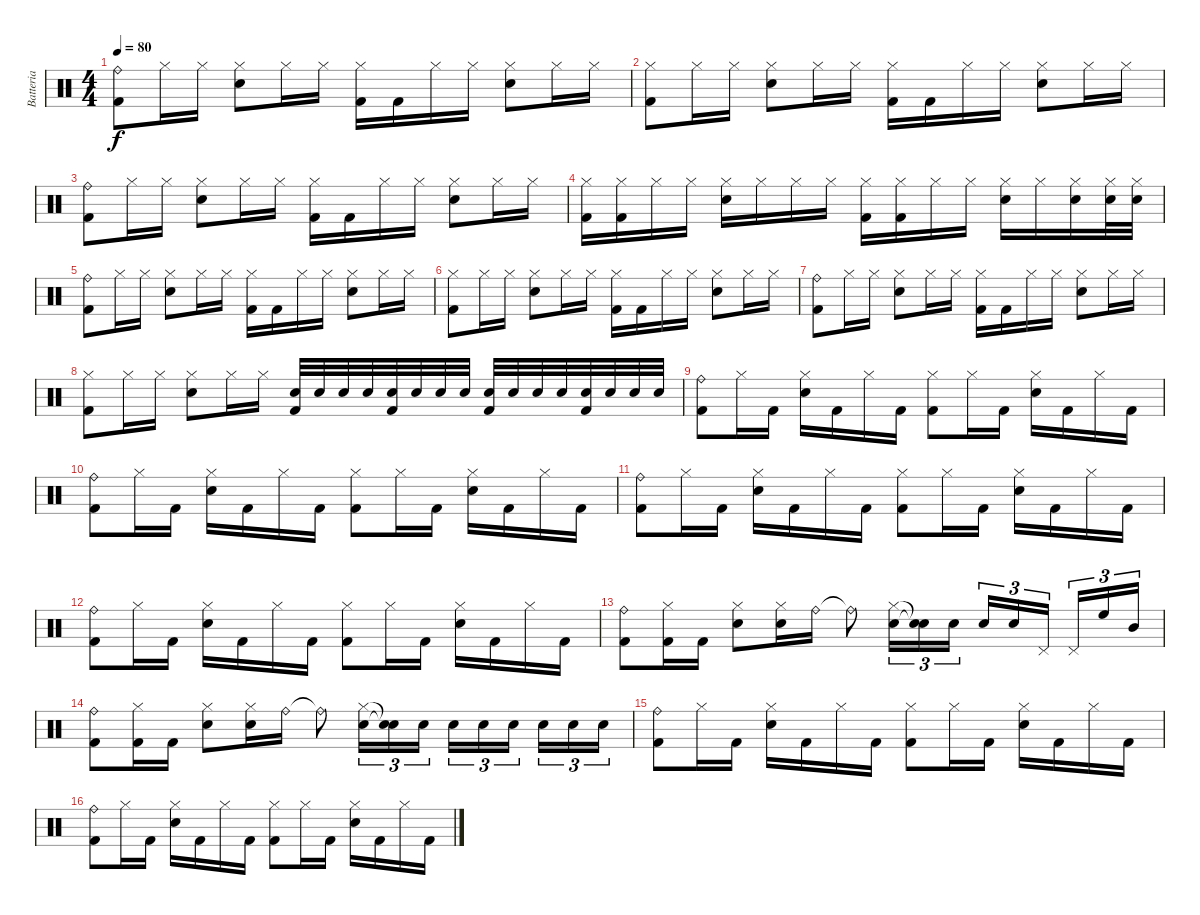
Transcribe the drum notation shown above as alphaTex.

\track ("Batteria" "Batteria") {instrument percussion}
\staff {score}
\articulation defaults
\ts (4 4)
\tempo 80
\clef neutral
\ks c
("Ride (bell)" "Kick (hit) 2").8{dy f} "Hi-Hat (closed)".16 "Hi-Hat (closed)".16 ("Hi-Hat (closed)" "Snare (hit) 2").8 "Hi-Hat (closed)".16 "Hi-Hat (closed)".16 ("Hi-Hat (closed)" "Kick (hit) 2").16 "Kick (hit) 2".16 "Hi-Hat (closed)".16 "Hi-Hat (closed)".16 ("Hi-Hat (closed)" "Snare (hit) 2").8 "Hi-Hat (closed)".16 "Hi-Hat (closed)".16 |
("Hi-Hat (closed)" "Kick (hit) 2").8 "Hi-Hat (closed)".16 "Hi-Hat (closed)".16 ("Hi-Hat (closed)" "Snare (hit) 2").8 "Hi-Hat (closed)".16 "Hi-Hat (closed)".16 ("Hi-Hat (closed)" "Kick (hit) 2").16 "Kick (hit) 2".16 "Hi-Hat (closed)".16 "Hi-Hat (closed)".16 ("Hi-Hat (closed)" "Snare (hit) 2").8 "Hi-Hat (closed)".16 "Hi-Hat (closed)".16 |
("Ride (bell)" "Kick (hit) 2").8 "Hi-Hat (closed)".16 "Hi-Hat (closed)".16 ("Hi-Hat (closed)" "Snare (hit) 2").8 "Hi-Hat (closed)".16 "Hi-Hat (closed)".16 ("Hi-Hat (closed)" "Kick (hit) 2").16 "Kick (hit) 2".16 "Hi-Hat (closed)".16 "Hi-Hat (closed)".16 ("Hi-Hat (closed)" "Snare (hit) 2").8 "Hi-Hat (closed)".16 "Hi-Hat (closed)".16 |
("Hi-Hat (closed)" "Kick (hit) 2").16 ("Hi-Hat (closed)" "Kick (hit) 2").16 "Hi-Hat (closed)".16 "Hi-Hat (closed)".16 ("Hi-Hat (closed)" "Snare (hit) 2").16 "Hi-Hat (closed)".16 "Hi-Hat (closed)".16 "Hi-Hat (closed)".16 ("Hi-Hat (closed)" "Kick (hit) 2").16 ("Hi-Hat (closed)" "Kick (hit) 2").16 "Hi-Hat (closed)".16 "Hi-Hat (closed)".16 ("Hi-Hat (closed)" "Snare (hit) 2").16 "Hi-Hat (closed)".16 ("Hi-Hat (closed)" "Snare (hit) 2").16 ("Hi-Hat (closed)" "Snare (hit) 2").32 ("Hi-Hat (closed)" "Snare (hit) 2").32 |
("Ride (bell)" "Kick (hit) 2").8 "Hi-Hat (closed)".16 "Hi-Hat (closed)".16 ("Hi-Hat (closed)" "Snare (hit) 2").8 "Hi-Hat (closed)".16 "Hi-Hat (closed)".16 ("Hi-Hat (closed)" "Kick (hit) 2").16 "Kick (hit) 2".16 "Hi-Hat (closed)".16 "Hi-Hat (closed)".16 ("Hi-Hat (closed)" "Snare (hit) 2").8 "Hi-Hat (closed)".16 "Hi-Hat (closed)".16 |
("Hi-Hat (closed)" "Kick (hit) 2").8 "Hi-Hat (closed)".16 "Hi-Hat (closed)".16 ("Hi-Hat (closed)" "Snare (hit) 2").8 "Hi-Hat (closed)".16 "Hi-Hat (closed)".16 ("Hi-Hat (closed)" "Kick (hit) 2").16 "Kick (hit) 2".16 "Hi-Hat (closed)".16 "Hi-Hat (closed)".16 ("Hi-Hat (closed)" "Snare (hit) 2").8 "Hi-Hat (closed)".16 "Hi-Hat (closed)".16 |
("Ride (bell)" "Kick (hit) 2").8 "Hi-Hat (closed)".16 "Hi-Hat (closed)".16 ("Hi-Hat (closed)" "Snare (hit) 2").8 "Hi-Hat (closed)".16 "Hi-Hat (closed)".16 ("Hi-Hat (closed)" "Kick (hit) 2").16 "Kick (hit) 2".16 "Hi-Hat (closed)".16 "Hi-Hat (closed)".16 ("Hi-Hat (closed)" "Snare (hit) 2").8 "Hi-Hat (closed)".16 "Hi-Hat (closed)".16 |
("Hi-Hat (closed)" "Kick (hit) 2").8 "Hi-Hat (closed)".16 "Hi-Hat (closed)".16 ("Hi-Hat (closed)" "Snare (hit) 2").8 "Hi-Hat (closed)".16 "Hi-Hat (closed)".16 ("Snare (hit) 2" "Kick (hit) 2").32 "Snare (hit) 2".32 "Snare (hit) 2".32 "Snare (hit) 2".32 ("Snare (hit) 2" "Kick (hit) 2").32 "Snare (hit) 2".32 "Snare (hit) 2".32 "Snare (hit) 2".32 ("Snare (hit) 2" "Kick (hit) 2").32 "Snare (hit) 2".32 "Snare (hit) 2".32 "Snare (hit) 2".32 ("Snare (hit) 2" "Kick (hit) 2").32 "Snare (hit) 2".32 "Snare (hit) 2".32 "Snare (hit) 2".32 |
("Ride (bell)" "Kick (hit) 2").8 "Hi-Hat (closed)".16 "Kick (hit) 2".16 ("Hi-Hat (closed)" "Snare (hit) 2").16 "Kick (hit) 2".16 "Hi-Hat (closed)".16 "Kick (hit) 2".16 ("Hi-Hat (closed)" "Kick (hit) 2").8 "Hi-Hat (closed)".16 "Kick (hit) 2".16 ("Hi-Hat (closed)" "Snare (hit) 2").16 "Kick (hit) 2".16 "Hi-Hat (closed)".16 "Kick (hit) 2".16 |
("Ride (bell)" "Kick (hit) 2").8 "Hi-Hat (closed)".16 "Kick (hit) 2".16 ("Hi-Hat (closed)" "Snare (hit) 2").16 "Kick (hit) 2".16 "Hi-Hat (closed)".16 "Kick (hit) 2".16 ("Hi-Hat (closed)" "Kick (hit) 2").8 "Hi-Hat (closed)".16 "Kick (hit) 2".16 ("Hi-Hat (closed)" "Snare (hit) 2").16 "Kick (hit) 2".16 "Hi-Hat (closed)".16 "Kick (hit) 2".16 |
("Ride (bell)" "Kick (hit) 2").8 "Hi-Hat (closed)".16 "Kick (hit) 2".16 ("Hi-Hat (closed)" "Snare (hit) 2").16 "Kick (hit) 2".16 "Hi-Hat (closed)".16 "Kick (hit) 2".16 ("Hi-Hat (closed)" "Kick (hit) 2").8 "Hi-Hat (closed)".16 "Kick (hit) 2".16 ("Hi-Hat (closed)" "Snare (hit) 2").16 "Kick (hit) 2".16 "Hi-Hat (closed)".16 "Kick (hit) 2".16 |
("Ride (bell)" "Kick (hit) 2").8 "Hi-Hat (closed)".16 "Kick (hit) 2".16 ("Hi-Hat (closed)" "Snare (hit) 2").16 "Kick (hit) 2".16 "Hi-Hat (closed)".16 "Kick (hit) 2".16 ("Hi-Hat (closed)" "Kick (hit) 2").8 "Hi-Hat (closed)".16 "Kick (hit) 2".16 ("Hi-Hat (closed)" "Snare (hit) 2").16 "Kick (hit) 2".16 "Hi-Hat (closed)".16 "Kick (hit) 2".16 |
("Ride (bell)" "Kick (hit) 2").8 ("Hi-Hat (closed)" "Kick (hit) 2").16 "Kick (hit) 2".16 ("Hi-Hat (closed)" "Snare (hit) 2").8 ("Hi-Hat (closed)" "Snare (hit) 2").16 "Ride (bell)".16 "Ride (bell)"{t}.8 ("Hi-Hat (closed)" "Snare (hit) 2").16{tu (3 2)} ("Snare (hit)"{t} "Snare (hit)"{t}).16{tu (3 2)} "Snare (hit) 2".16{tu (3 2)} "Snare (hit) 2".16{tu (3 2)} "Snare (hit) 2".16{tu (3 2)} "Pedal Hi-Hat (hit)".16{tu (3 2)} "Pedal Hi-Hat (hit)".16{tu (3 2)} "High Floor Tom (hit)".16{tu (3 2)} "Mid Tom (hit)".16{tu (3 2)} |
("Ride (bell)" "Kick (hit) 2").8 ("Hi-Hat (closed)" "Kick (hit) 2").16 "Kick (hit) 2".16 ("Hi-Hat (closed)" "Snare (hit) 2").8 ("Hi-Hat (closed)" "Snare (hit) 2").16 "Ride (bell)".16 "Ride (bell)"{t}.8 ("Hi-Hat (closed)" "Snare (hit) 2").16{tu (3 2)} ("Snare (hit)"{t} "Snare (hit)"{t}).16{tu (3 2)} "Snare (hit) 2".16{tu (3 2)} "Snare (hit) 2".16{tu (3 2)} "Snare (hit) 2".16{tu (3 2)} "Snare (hit) 2".16{tu (3 2)} "Snare (hit) 2".16{tu (3 2)} "Snare (hit) 2".16{tu (3 2)} "Snare (hit) 2".16{tu (3 2)} |
("Ride (bell)" "Kick (hit) 2").8 "Hi-Hat (closed)".16 "Kick (hit) 2".16 ("Hi-Hat (closed)" "Snare (hit) 2").16 "Kick (hit) 2".16 "Hi-Hat (closed)".16 "Kick (hit) 2".16 ("Hi-Hat (closed)" "Kick (hit) 2").8 "Hi-Hat (closed)".16 "Kick (hit) 2".16 ("Hi-Hat (closed)" "Snare (hit) 2").16 "Kick (hit) 2".16 "Hi-Hat (closed)".16 "Kick (hit) 2".16 |
("Ride (bell)" "Kick (hit) 2").8 "Hi-Hat (closed)".16 "Kick (hit) 2".16 ("Hi-Hat (closed)" "Snare (hit) 2").16 "Kick (hit) 2".16 "Hi-Hat (closed)".16 "Kick (hit) 2".16 ("Hi-Hat (closed)" "Kick (hit) 2").8 "Hi-Hat (closed)".16 "Kick (hit) 2".16 ("Hi-Hat (closed)" "Snare (hit) 2").16 "Kick (hit) 2".16 "Hi-Hat (closed)".16 "Kick (hit) 2".16
